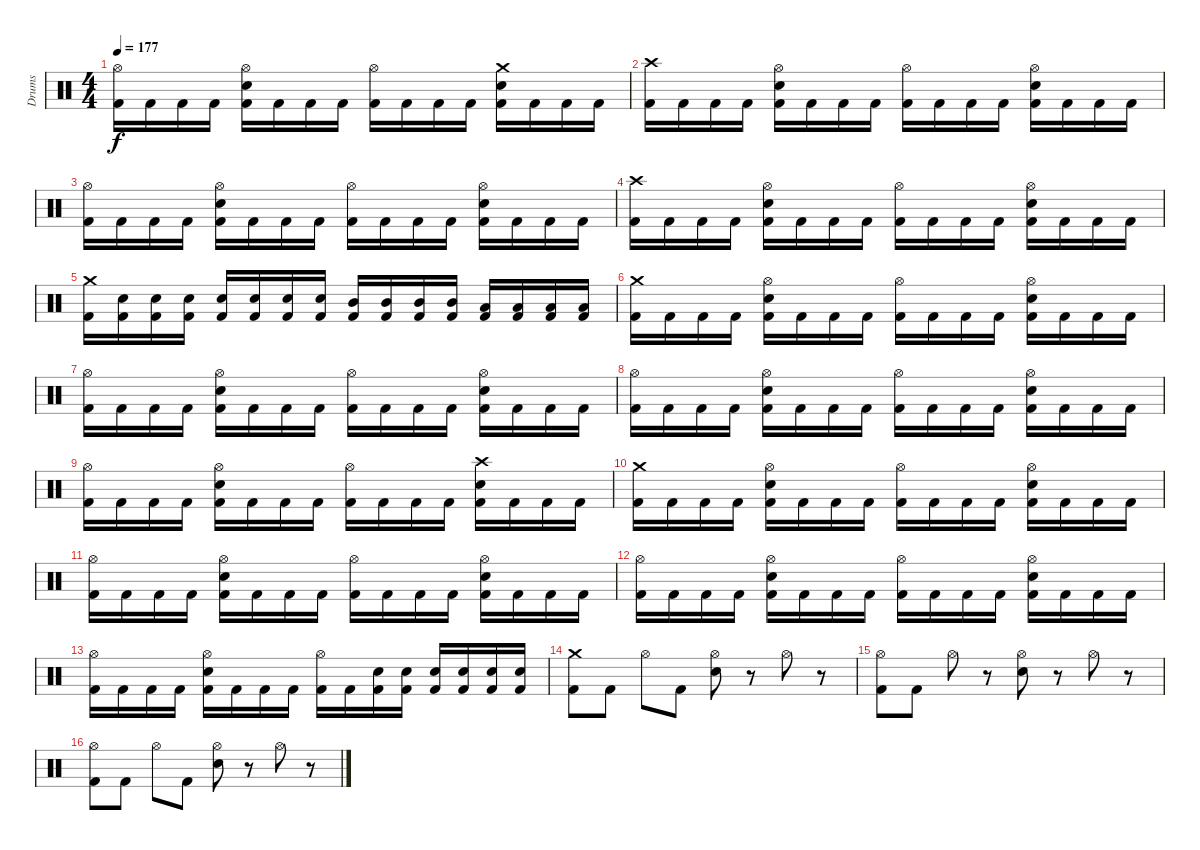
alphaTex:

\track ("Drums" "Drums") {instrument percussion}
\staff {score}
\articulation defaults
\ts (4 4)
\tempo 177
\clef neutral
\ks c
("Hi-Hat (open)" "Kick (hit) 2").16{dy f} "Kick (hit) 2".16 "Kick (hit) 2".16 "Kick (hit) 2".16 ("Hi-Hat (open)" "Snare (hit) 2" "Kick (hit) 2").16 "Kick (hit) 2".16 "Kick (hit) 2".16 "Kick (hit) 2".16 ("Hi-Hat (open)" "Kick (hit) 2").16 "Kick (hit) 2".16 "Kick (hit) 2".16 "Kick (hit) 2".16 ("Crash medium (hit)" "Snare (hit) 2" "Kick (hit) 2").16 "Kick (hit) 2".16 "Kick (hit) 2".16 "Kick (hit) 2".16 |
("Crash high (hit)" "Kick (hit) 2").16 "Kick (hit) 2".16 "Kick (hit) 2".16 "Kick (hit) 2".16 ("Hi-Hat (open)" "Snare (hit) 2" "Kick (hit) 2").16 "Kick (hit) 2".16 "Kick (hit) 2".16 "Kick (hit) 2".16 ("Hi-Hat (open)" "Kick (hit) 2").16 "Kick (hit) 2".16 "Kick (hit) 2".16 "Kick (hit) 2".16 ("Hi-Hat (open)" "Snare (hit) 2" "Kick (hit) 2").16 "Kick (hit) 2".16 "Kick (hit) 2".16 "Kick (hit) 2".16 |
("Hi-Hat (open)" "Kick (hit) 2").16 "Kick (hit) 2".16 "Kick (hit) 2".16 "Kick (hit) 2".16 ("Hi-Hat (open)" "Snare (hit) 2" "Kick (hit) 2").16 "Kick (hit) 2".16 "Kick (hit) 2".16 "Kick (hit) 2".16 ("Hi-Hat (open)" "Kick (hit) 2").16 "Kick (hit) 2".16 "Kick (hit) 2".16 "Kick (hit) 2".16 ("Hi-Hat (open)" "Snare (hit) 2" "Kick (hit) 2").16 "Kick (hit) 2".16 "Kick (hit) 2".16 "Kick (hit) 2".16 |
("Crash high (hit)" "Kick (hit) 2").16 "Kick (hit) 2".16 "Kick (hit) 2".16 "Kick (hit) 2".16 ("Hi-Hat (open)" "Snare (hit) 2" "Kick (hit) 2").16 "Kick (hit) 2".16 "Kick (hit) 2".16 "Kick (hit) 2".16 ("Hi-Hat (open)" "Kick (hit) 2").16 "Kick (hit) 2".16 "Kick (hit) 2".16 "Kick (hit) 2".16 ("Hi-Hat (open)" "Snare (hit) 2" "Kick (hit) 2").16 "Kick (hit) 2".16 "Kick (hit) 2".16 "Kick (hit) 2".16 |
("Crash medium (hit)" "Kick (hit) 2").16 ("Snare (hit) 2" "Kick (hit) 2").16 ("Snare (hit) 2" "Kick (hit) 2").16 ("Snare (hit) 2" "Kick (hit) 2").16 ("Snare (hit) 2" "Kick (hit) 2").16 ("Snare (hit) 2" "Kick (hit) 2").16 ("Snare (hit) 2" "Kick (hit) 2").16 ("Snare (hit) 2" "Kick (hit) 2").16 ("Mid Tom (hit)" "Kick (hit) 2").16 ("Mid Tom (hit)" "Kick (hit) 2").16 ("Mid Tom (hit)" "Kick (hit) 2").16 ("Mid Tom (hit)" "Kick (hit) 2").16 ("Low Tom (hit)" "Kick (hit) 2").16 ("Low Tom (hit)" "Kick (hit) 2").16 ("Low Tom (hit)" "Kick (hit) 2").16 ("Low Tom (hit)" "Kick (hit) 2").16 |
("Crash medium (hit)" "Kick (hit) 2").16 "Kick (hit) 2".16 "Kick (hit) 2".16 "Kick (hit) 2".16 ("Hi-Hat (open)" "Snare (hit) 2" "Kick (hit) 2").16 "Kick (hit) 2".16 "Kick (hit) 2".16 "Kick (hit) 2".16 ("Hi-Hat (open)" "Kick (hit) 2").16 "Kick (hit) 2".16 "Kick (hit) 2".16 "Kick (hit) 2".16 ("Hi-Hat (open)" "Snare (hit) 2" "Kick (hit) 2").16 "Kick (hit) 2".16 "Kick (hit) 2".16 "Kick (hit) 2".16 |
("Hi-Hat (open)" "Kick (hit) 2").16 "Kick (hit) 2".16 "Kick (hit) 2".16 "Kick (hit) 2".16 ("Hi-Hat (open)" "Snare (hit) 2" "Kick (hit) 2").16 "Kick (hit) 2".16 "Kick (hit) 2".16 "Kick (hit) 2".16 ("Hi-Hat (open)" "Kick (hit) 2").16 "Kick (hit) 2".16 "Kick (hit) 2".16 "Kick (hit) 2".16 ("Hi-Hat (open)" "Snare (hit) 2" "Kick (hit) 2").16 "Kick (hit) 2".16 "Kick (hit) 2".16 "Kick (hit) 2".16 |
("Hi-Hat (open)" "Kick (hit) 2").16 "Kick (hit) 2".16 "Kick (hit) 2".16 "Kick (hit) 2".16 ("Hi-Hat (open)" "Snare (hit) 2" "Kick (hit) 2").16 "Kick (hit) 2".16 "Kick (hit) 2".16 "Kick (hit) 2".16 ("Hi-Hat (open)" "Kick (hit) 2").16 "Kick (hit) 2".16 "Kick (hit) 2".16 "Kick (hit) 2".16 ("Hi-Hat (open)" "Snare (hit) 2" "Kick (hit) 2").16 "Kick (hit) 2".16 "Kick (hit) 2".16 "Kick (hit) 2".16 |
("Hi-Hat (open)" "Kick (hit) 2").16 "Kick (hit) 2".16 "Kick (hit) 2".16 "Kick (hit) 2".16 ("Hi-Hat (open)" "Snare (hit) 2" "Kick (hit) 2").16 "Kick (hit) 2".16 "Kick (hit) 2".16 "Kick (hit) 2".16 ("Hi-Hat (open)" "Kick (hit) 2").16 "Kick (hit) 2".16 "Kick (hit) 2".16 "Kick (hit) 2".16 ("Crash high (hit)" "Snare (hit) 2" "Kick (hit) 2").16 "Kick (hit) 2".16 "Kick (hit) 2".16 "Kick (hit) 2".16 |
("Crash medium (hit)" "Kick (hit) 2").16 "Kick (hit) 2".16 "Kick (hit) 2".16 "Kick (hit) 2".16 ("Hi-Hat (open)" "Snare (hit) 2" "Kick (hit) 2").16 "Kick (hit) 2".16 "Kick (hit) 2".16 "Kick (hit) 2".16 ("Hi-Hat (open)" "Kick (hit) 2").16 "Kick (hit) 2".16 "Kick (hit) 2".16 "Kick (hit) 2".16 ("Hi-Hat (open)" "Snare (hit) 2" "Kick (hit) 2").16 "Kick (hit) 2".16 "Kick (hit) 2".16 "Kick (hit) 2".16 |
("Hi-Hat (open)" "Kick (hit) 2").16 "Kick (hit) 2".16 "Kick (hit) 2".16 "Kick (hit) 2".16 ("Hi-Hat (open)" "Snare (hit) 2" "Kick (hit) 2").16 "Kick (hit) 2".16 "Kick (hit) 2".16 "Kick (hit) 2".16 ("Hi-Hat (open)" "Kick (hit) 2").16 "Kick (hit) 2".16 "Kick (hit) 2".16 "Kick (hit) 2".16 ("Hi-Hat (open)" "Snare (hit) 2" "Kick (hit) 2").16 "Kick (hit) 2".16 "Kick (hit) 2".16 "Kick (hit) 2".16 |
("Hi-Hat (open)" "Kick (hit) 2").16 "Kick (hit) 2".16 "Kick (hit) 2".16 "Kick (hit) 2".16 ("Hi-Hat (open)" "Snare (hit) 2" "Kick (hit) 2").16 "Kick (hit) 2".16 "Kick (hit) 2".16 "Kick (hit) 2".16 ("Hi-Hat (open)" "Kick (hit) 2").16 "Kick (hit) 2".16 "Kick (hit) 2".16 "Kick (hit) 2".16 ("Hi-Hat (open)" "Snare (hit) 2" "Kick (hit) 2").16 "Kick (hit) 2".16 "Kick (hit) 2".16 "Kick (hit) 2".16 |
("Hi-Hat (open)" "Kick (hit) 2").16 "Kick (hit) 2".16 "Kick (hit) 2".16 "Kick (hit) 2".16 ("Hi-Hat (open)" "Snare (hit) 2" "Kick (hit) 2").16 "Kick (hit) 2".16 "Kick (hit) 2".16 "Kick (hit) 2".16 ("Hi-Hat (open)" "Kick (hit) 2").16 "Kick (hit) 2".16 ("Snare (hit) 2" "Kick (hit) 2").16 ("Snare (hit) 2" "Kick (hit) 2").16 ("Snare (hit) 2" "Kick (hit) 2").16 ("Snare (hit) 2" "Kick (hit) 2").16 ("Snare (hit) 2" "Kick (hit) 2").16 ("Snare (hit) 2" "Kick (hit) 2").16 |
("Crash medium (hit)" "Kick (hit) 2").8 "Kick (hit) 2".8 "Hi-Hat (open)".8 "Kick (hit) 2".8 ("Hi-Hat (open)" "Snare (hit) 2").8 r.8 "Hi-Hat (open)".8 r.8 |
("Hi-Hat (open)" "Kick (hit) 2").8 "Kick (hit) 2".8 "Hi-Hat (open)".8 r.8 ("Hi-Hat (open)" "Snare (hit) 2").8 r.8 "Hi-Hat (open)".8 r.8 |
("Hi-Hat (open)" "Kick (hit) 2").8 "Kick (hit) 2".8 "Hi-Hat (open)".8 "Kick (hit) 2".8 ("Hi-Hat (open)" "Snare (hit) 2").8 r.8 "Hi-Hat (open)".8 r.8
